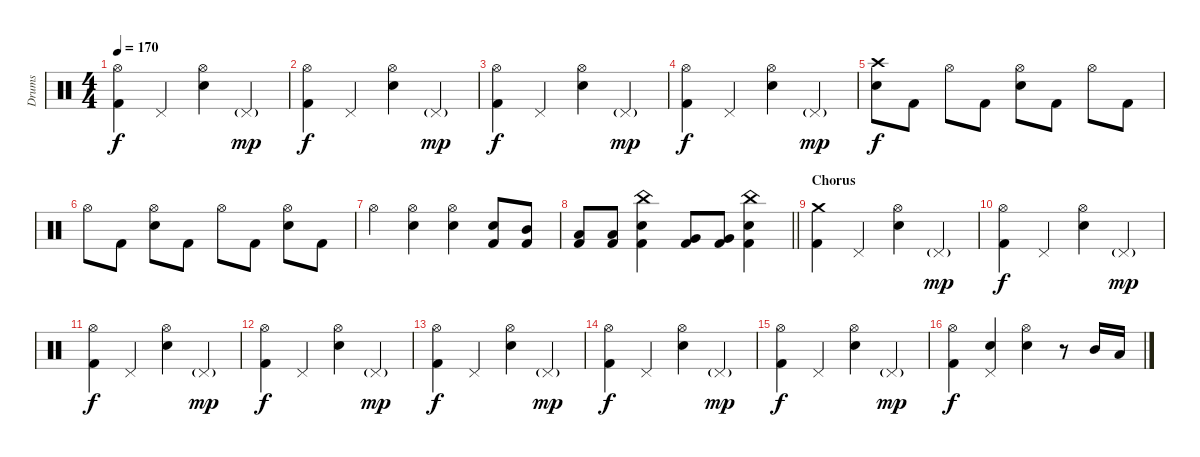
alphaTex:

\track ("Drums" "Drums") {instrument percussion}
\staff {score}
\articulation defaults
\ts (4 4)
\tempo 170
\clef neutral
\ks c
("Hi-Hat (open)" "Kick (hit) 2").4{dy f} "Pedal Hi-Hat (hit)".4 ("Hi-Hat (open)" "Electric Snare (hit)").4 "Pedal Hi-Hat (hit)"{g}.4{dy mp} |
("Hi-Hat (open)" "Kick (hit) 2").4{dy f} "Pedal Hi-Hat (hit)".4 ("Hi-Hat (open)" "Electric Snare (hit)").4 "Pedal Hi-Hat (hit)"{g}.4{dy mp} |
("Hi-Hat (open)" "Kick (hit) 2").4{dy f} "Pedal Hi-Hat (hit)".4 ("Hi-Hat (open)" "Electric Snare (hit)").4 "Pedal Hi-Hat (hit)"{g}.4{dy mp} |
("Hi-Hat (open)" "Kick (hit) 2").4{dy f} "Pedal Hi-Hat (hit)".4 ("Hi-Hat (open)" "Electric Snare (hit)").4 "Pedal Hi-Hat (hit)"{g}.4{dy mp} |
("Crash high (hit)" "Electric Snare (hit)").8{dy f} "Kick (hit) 2".8 "Hi-Hat (open)".8 "Kick (hit) 2".8 ("Hi-Hat (open)" "Electric Snare (hit)").8 "Kick (hit) 2".8 "Hi-Hat (open)".8 "Kick (hit) 2".8 |
"Hi-Hat (open)".8 "Kick (hit) 2".8 ("Hi-Hat (open)" "Electric Snare (hit)").8 "Kick (hit) 2".8 "Hi-Hat (open)".8 "Kick (hit) 2".8 ("Hi-Hat (open)" "Electric Snare (hit)").8 "Kick (hit) 2".8 |
"Hi-Hat (open)".4 ("Hi-Hat (open)" "Electric Snare (hit)").4 ("Hi-Hat (open)" "Electric Snare (hit)").4 ("Electric Snare (hit)" "Kick (hit) 2").8 ("Mid Tom (hit)" "Kick (hit) 2").8 |
\barLineRight lightlight
("Low Tom (hit)" "Kick (hit) 2").8 ("Low Tom (hit)" "Kick (hit) 2").8 ("China (hit)" "Electric Snare (hit)" "Kick (hit) 2").4 ("Very Low Tom (hit)" "Kick (hit) 2").8 ("Very Low Tom (hit)" "Kick (hit) 2").8 ("China (hit)" "Electric Snare (hit)" "Kick (hit) 2").4 |
\section ("" "Chorus")
("Crash medium (hit)" "Kick (hit) 2").4 "Pedal Hi-Hat (hit)".4 ("Hi-Hat (open)" "Electric Snare (hit)").4 "Pedal Hi-Hat (hit)"{g}.4{dy mp} |
("Hi-Hat (open)" "Kick (hit) 2").4{dy f} "Pedal Hi-Hat (hit)".4 ("Hi-Hat (open)" "Electric Snare (hit)").4 "Pedal Hi-Hat (hit)"{g}.4{dy mp} |
("Hi-Hat (open)" "Kick (hit) 2").4{dy f} "Pedal Hi-Hat (hit)".4 ("Hi-Hat (open)" "Electric Snare (hit)").4 "Pedal Hi-Hat (hit)"{g}.4{dy mp} |
("Hi-Hat (open)" "Kick (hit) 2").4{dy f} "Pedal Hi-Hat (hit)".4 ("Hi-Hat (open)" "Electric Snare (hit)").4 "Pedal Hi-Hat (hit)"{g}.4{dy mp} |
("Hi-Hat (open)" "Kick (hit) 2").4{dy f} "Pedal Hi-Hat (hit)".4 ("Hi-Hat (open)" "Electric Snare (hit)").4 "Pedal Hi-Hat (hit)"{g}.4{dy mp} |
("Hi-Hat (open)" "Kick (hit) 2").4{dy f} "Pedal Hi-Hat (hit)".4 ("Hi-Hat (open)" "Electric Snare (hit)").4 "Pedal Hi-Hat (hit)"{g}.4{dy mp} |
("Hi-Hat (open)" "Kick (hit) 2").4{dy f} "Pedal Hi-Hat (hit)".4 ("Hi-Hat (open)" "Electric Snare (hit)").4 "Pedal Hi-Hat (hit)"{g}.4{dy mp} |
("Hi-Hat (open)" "Kick (hit) 2").4{dy f} ("Pedal Hi-Hat (hit)" "Electric Snare (hit)").4 ("Hi-Hat (open)" "Electric Snare (hit)").4 r.8 "Mid Tom (hit)".16 "Low Tom (hit)".16
